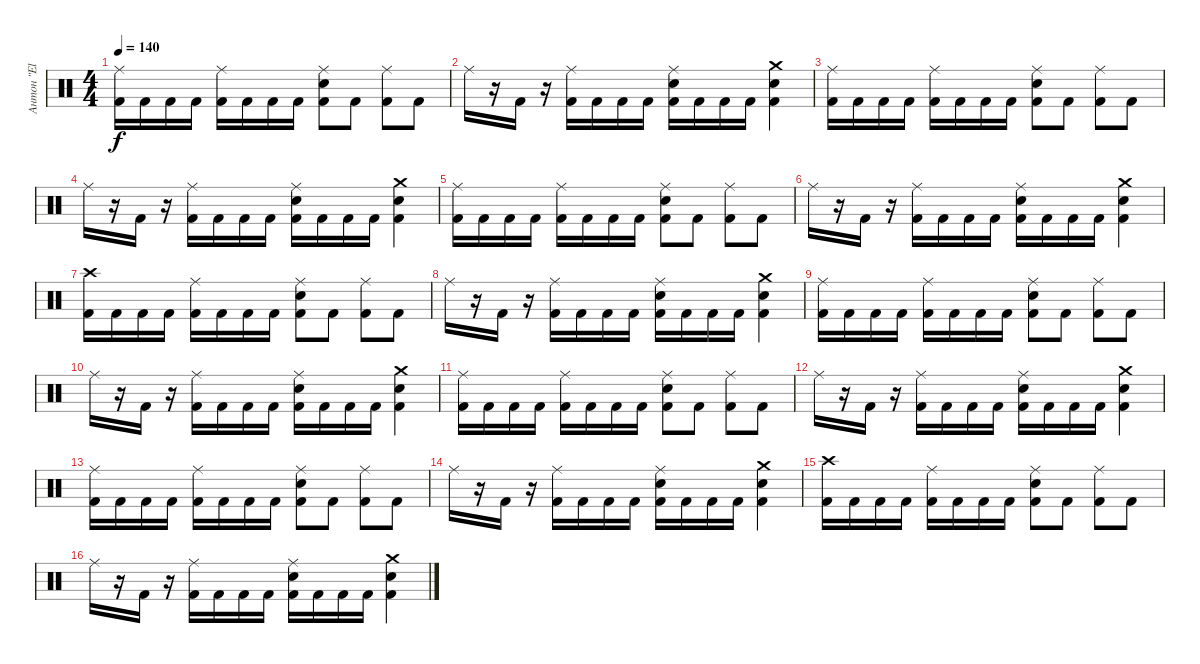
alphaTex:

\track ("Антон \"El Bastardo\" Смольянин" "Антон \"El ") {instrument percussion}
\staff {score}
\articulation defaults
\ts (4 4)
\tempo 140
\clef neutral
\ks c
("Ride (middle)" "Kick (hit) 2").16{dy f} "Kick (hit) 2".16 "Kick (hit) 2".16 "Kick (hit) 2".16 ("Ride (middle)" "Kick (hit) 2").16 "Kick (hit) 2".16 "Kick (hit) 2".16 "Kick (hit) 2".16 ("Ride (middle)" "Electric Snare (hit)" "Kick (hit) 2").8 "Kick (hit) 2".8 ("Ride (middle)" "Kick (hit) 2").8 "Kick (hit) 2".8 |
"Ride (middle)".16 r.16 "Kick (hit) 2".16 r.16 ("Ride (middle)" "Kick (hit) 2").16 "Kick (hit) 2".16 "Kick (hit) 2".16 "Kick (hit) 2".16 ("Ride (middle)" "Electric Snare (hit)" "Kick (hit) 2").16 "Kick (hit) 2".16 "Kick (hit) 2".16 "Kick (hit) 2".16 ("Crash medium (hit)" "Electric Snare (hit)" "Kick (hit) 2").4 |
("Ride (middle)" "Kick (hit) 2").16 "Kick (hit) 2".16 "Kick (hit) 2".16 "Kick (hit) 2".16 ("Ride (middle)" "Kick (hit) 2").16 "Kick (hit) 2".16 "Kick (hit) 2".16 "Kick (hit) 2".16 ("Ride (middle)" "Electric Snare (hit)" "Kick (hit) 2").8 "Kick (hit) 2".8 ("Ride (middle)" "Kick (hit) 2").8 "Kick (hit) 2".8 |
"Ride (middle)".16 r.16 "Kick (hit) 2".16 r.16 ("Ride (middle)" "Kick (hit) 2").16 "Kick (hit) 2".16 "Kick (hit) 2".16 "Kick (hit) 2".16 ("Ride (middle)" "Electric Snare (hit)" "Kick (hit) 2").16 "Kick (hit) 2".16 "Kick (hit) 2".16 "Kick (hit) 2".16 ("Crash medium (hit)" "Electric Snare (hit)" "Kick (hit) 2").4 |
("Ride (middle)" "Kick (hit) 2").16 "Kick (hit) 2".16 "Kick (hit) 2".16 "Kick (hit) 2".16 ("Ride (middle)" "Kick (hit) 2").16 "Kick (hit) 2".16 "Kick (hit) 2".16 "Kick (hit) 2".16 ("Ride (middle)" "Electric Snare (hit)" "Kick (hit) 2").8 "Kick (hit) 2".8 ("Ride (middle)" "Kick (hit) 2").8 "Kick (hit) 2".8 |
"Ride (middle)".16 r.16 "Kick (hit) 2".16 r.16 ("Ride (middle)" "Kick (hit) 2").16 "Kick (hit) 2".16 "Kick (hit) 2".16 "Kick (hit) 2".16 ("Ride (middle)" "Electric Snare (hit)" "Kick (hit) 2").16 "Kick (hit) 2".16 "Kick (hit) 2".16 "Kick (hit) 2".16 ("Crash medium (hit)" "Electric Snare (hit)" "Kick (hit) 2").4 |
("Crash high (hit)" "Kick (hit) 2").16 "Kick (hit) 2".16 "Kick (hit) 2".16 "Kick (hit) 2".16 ("Ride (middle)" "Kick (hit) 2").16 "Kick (hit) 2".16 "Kick (hit) 2".16 "Kick (hit) 2".16 ("Ride (middle)" "Electric Snare (hit)" "Kick (hit) 2").8 "Kick (hit) 2".8 ("Ride (middle)" "Kick (hit) 2").8 "Kick (hit) 2".8 |
"Ride (middle)".16 r.16 "Kick (hit) 2".16 r.16 ("Ride (middle)" "Kick (hit) 2").16 "Kick (hit) 2".16 "Kick (hit) 2".16 "Kick (hit) 2".16 ("Ride (middle)" "Electric Snare (hit)" "Kick (hit) 2").16 "Kick (hit) 2".16 "Kick (hit) 2".16 "Kick (hit) 2".16 ("Crash medium (hit)" "Electric Snare (hit)" "Kick (hit) 2").4 |
("Ride (middle)" "Kick (hit) 2").16 "Kick (hit) 2".16 "Kick (hit) 2".16 "Kick (hit) 2".16 ("Ride (middle)" "Kick (hit) 2").16 "Kick (hit) 2".16 "Kick (hit) 2".16 "Kick (hit) 2".16 ("Ride (middle)" "Electric Snare (hit)" "Kick (hit) 2").8 "Kick (hit) 2".8 ("Ride (middle)" "Kick (hit) 2").8 "Kick (hit) 2".8 |
"Ride (middle)".16 r.16 "Kick (hit) 2".16 r.16 ("Ride (middle)" "Kick (hit) 2").16 "Kick (hit) 2".16 "Kick (hit) 2".16 "Kick (hit) 2".16 ("Ride (middle)" "Electric Snare (hit)" "Kick (hit) 2").16 "Kick (hit) 2".16 "Kick (hit) 2".16 "Kick (hit) 2".16 ("Crash medium (hit)" "Electric Snare (hit)" "Kick (hit) 2").4 |
("Ride (middle)" "Kick (hit) 2").16 "Kick (hit) 2".16 "Kick (hit) 2".16 "Kick (hit) 2".16 ("Ride (middle)" "Kick (hit) 2").16 "Kick (hit) 2".16 "Kick (hit) 2".16 "Kick (hit) 2".16 ("Ride (middle)" "Electric Snare (hit)" "Kick (hit) 2").8 "Kick (hit) 2".8 ("Ride (middle)" "Kick (hit) 2").8 "Kick (hit) 2".8 |
"Ride (middle)".16 r.16 "Kick (hit) 2".16 r.16 ("Ride (middle)" "Kick (hit) 2").16 "Kick (hit) 2".16 "Kick (hit) 2".16 "Kick (hit) 2".16 ("Ride (middle)" "Electric Snare (hit)" "Kick (hit) 2").16 "Kick (hit) 2".16 "Kick (hit) 2".16 "Kick (hit) 2".16 ("Crash medium (hit)" "Electric Snare (hit)" "Kick (hit) 2").4 |
("Ride (middle)" "Kick (hit) 2").16 "Kick (hit) 2".16 "Kick (hit) 2".16 "Kick (hit) 2".16 ("Ride (middle)" "Kick (hit) 2").16 "Kick (hit) 2".16 "Kick (hit) 2".16 "Kick (hit) 2".16 ("Ride (middle)" "Electric Snare (hit)" "Kick (hit) 2").8 "Kick (hit) 2".8 ("Ride (middle)" "Kick (hit) 2").8 "Kick (hit) 2".8 |
"Ride (middle)".16 r.16 "Kick (hit) 2".16 r.16 ("Ride (middle)" "Kick (hit) 2").16 "Kick (hit) 2".16 "Kick (hit) 2".16 "Kick (hit) 2".16 ("Ride (middle)" "Electric Snare (hit)" "Kick (hit) 2").16 "Kick (hit) 2".16 "Kick (hit) 2".16 "Kick (hit) 2".16 ("Crash medium (hit)" "Electric Snare (hit)" "Kick (hit) 2").4 |
("Crash high (hit)" "Kick (hit) 2").16 "Kick (hit) 2".16 "Kick (hit) 2".16 "Kick (hit) 2".16 ("Ride (middle)" "Kick (hit) 2").16 "Kick (hit) 2".16 "Kick (hit) 2".16 "Kick (hit) 2".16 ("Ride (middle)" "Electric Snare (hit)" "Kick (hit) 2").8 "Kick (hit) 2".8 ("Ride (middle)" "Kick (hit) 2").8 "Kick (hit) 2".8 |
"Ride (middle)".16 r.16 "Kick (hit) 2".16 r.16 ("Ride (middle)" "Kick (hit) 2").16 "Kick (hit) 2".16 "Kick (hit) 2".16 "Kick (hit) 2".16 ("Ride (middle)" "Electric Snare (hit)" "Kick (hit) 2").16 "Kick (hit) 2".16 "Kick (hit) 2".16 "Kick (hit) 2".16 ("Crash medium (hit)" "Electric Snare (hit)" "Kick (hit) 2").4
